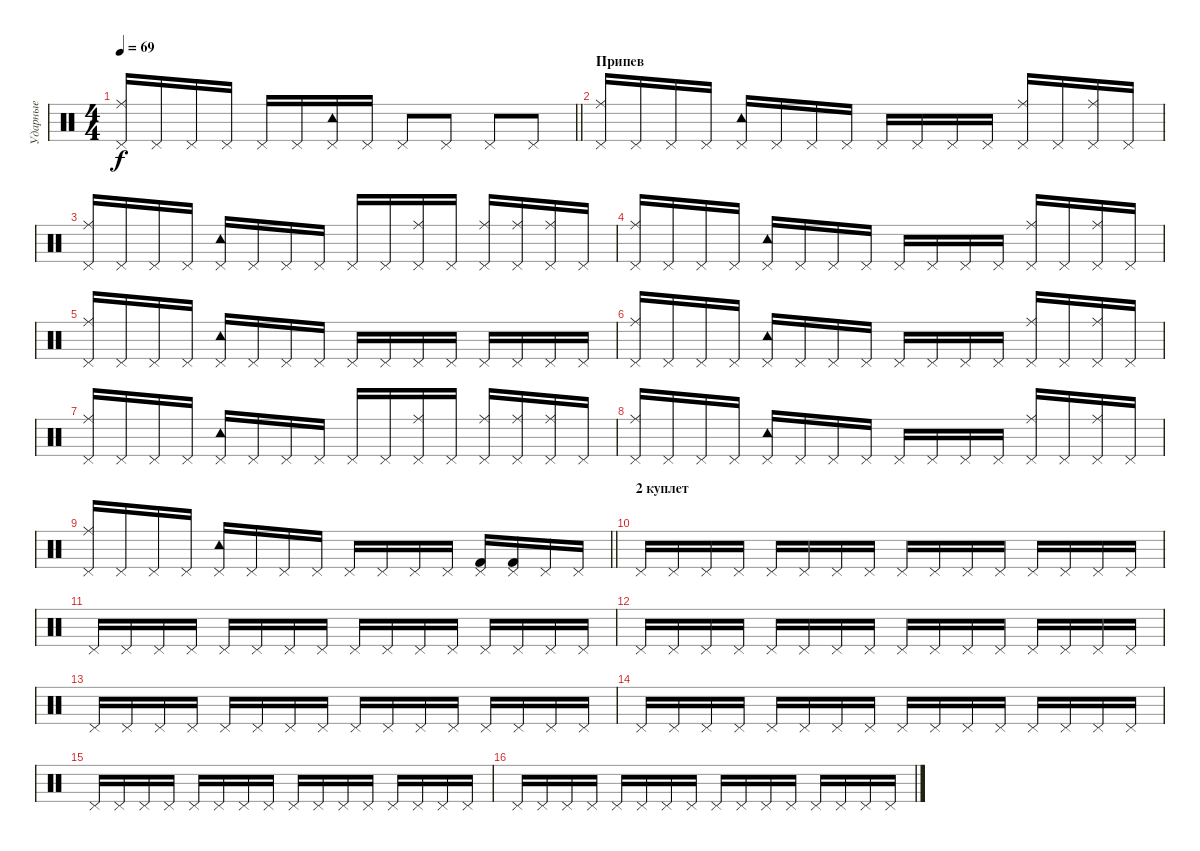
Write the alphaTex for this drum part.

\track ("Ударные" "Ударные") {instrument percussion}
\staff {score}
\articulation defaults
\ts (4 4)
\tempo 69
\clef neutral
\barLineRight lightlight
\ks c
("Pedal Hi-Hat (hit)" "Ride (middle)").16{dy f} "Pedal Hi-Hat (hit)".16 "Pedal Hi-Hat (hit)".16 "Pedal Hi-Hat (hit)".16 "Pedal Hi-Hat (hit)".16 "Pedal Hi-Hat (hit)".16 ("Pedal Hi-Hat (hit)" "Tambourine (hit)").16 "Pedal Hi-Hat (hit)".16 "Pedal Hi-Hat (hit)".8 "Pedal Hi-Hat (hit)".8 "Pedal Hi-Hat (hit)".8 "Pedal Hi-Hat (hit)".8 |
\section ("" "Припев")
("Pedal Hi-Hat (hit)" "Ride (middle)").16 "Pedal Hi-Hat (hit)".16 "Pedal Hi-Hat (hit)".16 "Pedal Hi-Hat (hit)".16 ("Pedal Hi-Hat (hit)" "Tambourine (hit)").16 "Pedal Hi-Hat (hit)".16 "Pedal Hi-Hat (hit)".16 "Pedal Hi-Hat (hit)".16 "Pedal Hi-Hat (hit)".16 "Pedal Hi-Hat (hit)".16 "Pedal Hi-Hat (hit)".16 "Pedal Hi-Hat (hit)".16 ("Pedal Hi-Hat (hit)" "Ride (middle)").16 "Pedal Hi-Hat (hit)".16 ("Pedal Hi-Hat (hit)" "Ride (middle)").16 "Pedal Hi-Hat (hit)".16 |
("Pedal Hi-Hat (hit)" "Ride (middle)").16 "Pedal Hi-Hat (hit)".16 "Pedal Hi-Hat (hit)".16 "Pedal Hi-Hat (hit)".16 ("Pedal Hi-Hat (hit)" "Tambourine (hit)").16 "Pedal Hi-Hat (hit)".16 "Pedal Hi-Hat (hit)".16 "Pedal Hi-Hat (hit)".16 "Pedal Hi-Hat (hit)".16 "Pedal Hi-Hat (hit)".16 ("Pedal Hi-Hat (hit)" "Ride (middle)").16 "Pedal Hi-Hat (hit)".16 ("Pedal Hi-Hat (hit)" "Ride (middle)").16 ("Pedal Hi-Hat (hit)" "Ride (middle)").16 ("Pedal Hi-Hat (hit)" "Ride (middle)").16 "Pedal Hi-Hat (hit)".16 |
("Pedal Hi-Hat (hit)" "Ride (middle)").16 "Pedal Hi-Hat (hit)".16 "Pedal Hi-Hat (hit)".16 "Pedal Hi-Hat (hit)".16 ("Pedal Hi-Hat (hit)" "Tambourine (hit)").16 "Pedal Hi-Hat (hit)".16 "Pedal Hi-Hat (hit)".16 "Pedal Hi-Hat (hit)".16 "Pedal Hi-Hat (hit)".16 "Pedal Hi-Hat (hit)".16 "Pedal Hi-Hat (hit)".16 "Pedal Hi-Hat (hit)".16 ("Pedal Hi-Hat (hit)" "Ride (middle)").16 "Pedal Hi-Hat (hit)".16 ("Pedal Hi-Hat (hit)" "Ride (middle)").16 "Pedal Hi-Hat (hit)".16 |
("Pedal Hi-Hat (hit)" "Ride (middle)").16 "Pedal Hi-Hat (hit)".16 "Pedal Hi-Hat (hit)".16 "Pedal Hi-Hat (hit)".16 ("Pedal Hi-Hat (hit)" "Tambourine (hit)").16 "Pedal Hi-Hat (hit)".16 "Pedal Hi-Hat (hit)".16 "Pedal Hi-Hat (hit)".16 "Pedal Hi-Hat (hit)".16 "Pedal Hi-Hat (hit)".16 "Pedal Hi-Hat (hit)".16 "Pedal Hi-Hat (hit)".16 "Pedal Hi-Hat (hit)".16 "Pedal Hi-Hat (hit)".16 "Pedal Hi-Hat (hit)".16 "Pedal Hi-Hat (hit)".16 |
("Pedal Hi-Hat (hit)" "Ride (middle)").16 "Pedal Hi-Hat (hit)".16 "Pedal Hi-Hat (hit)".16 "Pedal Hi-Hat (hit)".16 ("Pedal Hi-Hat (hit)" "Tambourine (hit)").16 "Pedal Hi-Hat (hit)".16 "Pedal Hi-Hat (hit)".16 "Pedal Hi-Hat (hit)".16 "Pedal Hi-Hat (hit)".16 "Pedal Hi-Hat (hit)".16 "Pedal Hi-Hat (hit)".16 "Pedal Hi-Hat (hit)".16 ("Pedal Hi-Hat (hit)" "Ride (middle)").16 "Pedal Hi-Hat (hit)".16 ("Pedal Hi-Hat (hit)" "Ride (middle)").16 "Pedal Hi-Hat (hit)".16 |
("Pedal Hi-Hat (hit)" "Ride (middle)").16 "Pedal Hi-Hat (hit)".16 "Pedal Hi-Hat (hit)".16 "Pedal Hi-Hat (hit)".16 ("Pedal Hi-Hat (hit)" "Tambourine (hit)").16 "Pedal Hi-Hat (hit)".16 "Pedal Hi-Hat (hit)".16 "Pedal Hi-Hat (hit)".16 "Pedal Hi-Hat (hit)".16 "Pedal Hi-Hat (hit)".16 ("Pedal Hi-Hat (hit)" "Ride (middle)").16 "Pedal Hi-Hat (hit)".16 ("Pedal Hi-Hat (hit)" "Ride (middle)").16 ("Pedal Hi-Hat (hit)" "Ride (middle)").16 ("Pedal Hi-Hat (hit)" "Ride (middle)").16 "Pedal Hi-Hat (hit)".16 |
("Pedal Hi-Hat (hit)" "Ride (middle)").16 "Pedal Hi-Hat (hit)".16 "Pedal Hi-Hat (hit)".16 "Pedal Hi-Hat (hit)".16 ("Pedal Hi-Hat (hit)" "Tambourine (hit)").16 "Pedal Hi-Hat (hit)".16 "Pedal Hi-Hat (hit)".16 "Pedal Hi-Hat (hit)".16 "Pedal Hi-Hat (hit)".16 "Pedal Hi-Hat (hit)".16 "Pedal Hi-Hat (hit)".16 "Pedal Hi-Hat (hit)".16 ("Pedal Hi-Hat (hit)" "Ride (middle)").16 "Pedal Hi-Hat (hit)".16 ("Pedal Hi-Hat (hit)" "Ride (middle)").16 "Pedal Hi-Hat (hit)".16 |
\barLineRight lightlight
("Pedal Hi-Hat (hit)" "Ride (middle)").16 "Pedal Hi-Hat (hit)".16 "Pedal Hi-Hat (hit)".16 "Pedal Hi-Hat (hit)".16 ("Pedal Hi-Hat (hit)" "Tambourine (hit)").16 "Pedal Hi-Hat (hit)".16 "Pedal Hi-Hat (hit)".16 "Pedal Hi-Hat (hit)".16 "Pedal Hi-Hat (hit)".16 "Pedal Hi-Hat (hit)".16 "Pedal Hi-Hat (hit)".16 "Pedal Hi-Hat (hit)".16 ("Pedal Hi-Hat (hit)" "Kick (hit) 2").16 ("Pedal Hi-Hat (hit)" "Kick (hit) 2").16 "Pedal Hi-Hat (hit)".16 "Pedal Hi-Hat (hit)".16 |
\section ("" "2 куплет")
"Pedal Hi-Hat (hit)".16 "Pedal Hi-Hat (hit)".16 "Pedal Hi-Hat (hit)".16 "Pedal Hi-Hat (hit)".16 "Pedal Hi-Hat (hit)".16 "Pedal Hi-Hat (hit)".16 "Pedal Hi-Hat (hit)".16 "Pedal Hi-Hat (hit)".16 "Pedal Hi-Hat (hit)".16 "Pedal Hi-Hat (hit)".16 "Pedal Hi-Hat (hit)".16 "Pedal Hi-Hat (hit)".16 "Pedal Hi-Hat (hit)".16 "Pedal Hi-Hat (hit)".16 "Pedal Hi-Hat (hit)".16 "Pedal Hi-Hat (hit)".16 |
"Pedal Hi-Hat (hit)".16 "Pedal Hi-Hat (hit)".16 "Pedal Hi-Hat (hit)".16 "Pedal Hi-Hat (hit)".16 "Pedal Hi-Hat (hit)".16 "Pedal Hi-Hat (hit)".16 "Pedal Hi-Hat (hit)".16 "Pedal Hi-Hat (hit)".16 "Pedal Hi-Hat (hit)".16 "Pedal Hi-Hat (hit)".16 "Pedal Hi-Hat (hit)".16 "Pedal Hi-Hat (hit)".16 "Pedal Hi-Hat (hit)".16 "Pedal Hi-Hat (hit)".16 "Pedal Hi-Hat (hit)".16 "Pedal Hi-Hat (hit)".16 |
"Pedal Hi-Hat (hit)".16 "Pedal Hi-Hat (hit)".16 "Pedal Hi-Hat (hit)".16 "Pedal Hi-Hat (hit)".16 "Pedal Hi-Hat (hit)".16 "Pedal Hi-Hat (hit)".16 "Pedal Hi-Hat (hit)".16 "Pedal Hi-Hat (hit)".16 "Pedal Hi-Hat (hit)".16 "Pedal Hi-Hat (hit)".16 "Pedal Hi-Hat (hit)".16 "Pedal Hi-Hat (hit)".16 "Pedal Hi-Hat (hit)".16 "Pedal Hi-Hat (hit)".16 "Pedal Hi-Hat (hit)".16 "Pedal Hi-Hat (hit)".16 |
"Pedal Hi-Hat (hit)".16 "Pedal Hi-Hat (hit)".16 "Pedal Hi-Hat (hit)".16 "Pedal Hi-Hat (hit)".16 "Pedal Hi-Hat (hit)".16 "Pedal Hi-Hat (hit)".16 "Pedal Hi-Hat (hit)".16 "Pedal Hi-Hat (hit)".16 "Pedal Hi-Hat (hit)".16 "Pedal Hi-Hat (hit)".16 "Pedal Hi-Hat (hit)".16 "Pedal Hi-Hat (hit)".16 "Pedal Hi-Hat (hit)".16 "Pedal Hi-Hat (hit)".16 "Pedal Hi-Hat (hit)".16 "Pedal Hi-Hat (hit)".16 |
"Pedal Hi-Hat (hit)".16 "Pedal Hi-Hat (hit)".16 "Pedal Hi-Hat (hit)".16 "Pedal Hi-Hat (hit)".16 "Pedal Hi-Hat (hit)".16 "Pedal Hi-Hat (hit)".16 "Pedal Hi-Hat (hit)".16 "Pedal Hi-Hat (hit)".16 "Pedal Hi-Hat (hit)".16 "Pedal Hi-Hat (hit)".16 "Pedal Hi-Hat (hit)".16 "Pedal Hi-Hat (hit)".16 "Pedal Hi-Hat (hit)".16 "Pedal Hi-Hat (hit)".16 "Pedal Hi-Hat (hit)".16 "Pedal Hi-Hat (hit)".16 |
"Pedal Hi-Hat (hit)".16 "Pedal Hi-Hat (hit)".16 "Pedal Hi-Hat (hit)".16 "Pedal Hi-Hat (hit)".16 "Pedal Hi-Hat (hit)".16 "Pedal Hi-Hat (hit)".16 "Pedal Hi-Hat (hit)".16 "Pedal Hi-Hat (hit)".16 "Pedal Hi-Hat (hit)".16 "Pedal Hi-Hat (hit)".16 "Pedal Hi-Hat (hit)".16 "Pedal Hi-Hat (hit)".16 "Pedal Hi-Hat (hit)".16 "Pedal Hi-Hat (hit)".16 "Pedal Hi-Hat (hit)".16 "Pedal Hi-Hat (hit)".16 |
"Pedal Hi-Hat (hit)".16 "Pedal Hi-Hat (hit)".16 "Pedal Hi-Hat (hit)".16 "Pedal Hi-Hat (hit)".16 "Pedal Hi-Hat (hit)".16 "Pedal Hi-Hat (hit)".16 "Pedal Hi-Hat (hit)".16 "Pedal Hi-Hat (hit)".16 "Pedal Hi-Hat (hit)".16 "Pedal Hi-Hat (hit)".16 "Pedal Hi-Hat (hit)".16 "Pedal Hi-Hat (hit)".16 "Pedal Hi-Hat (hit)".16 "Pedal Hi-Hat (hit)".16 "Pedal Hi-Hat (hit)".16 "Pedal Hi-Hat (hit)".16
